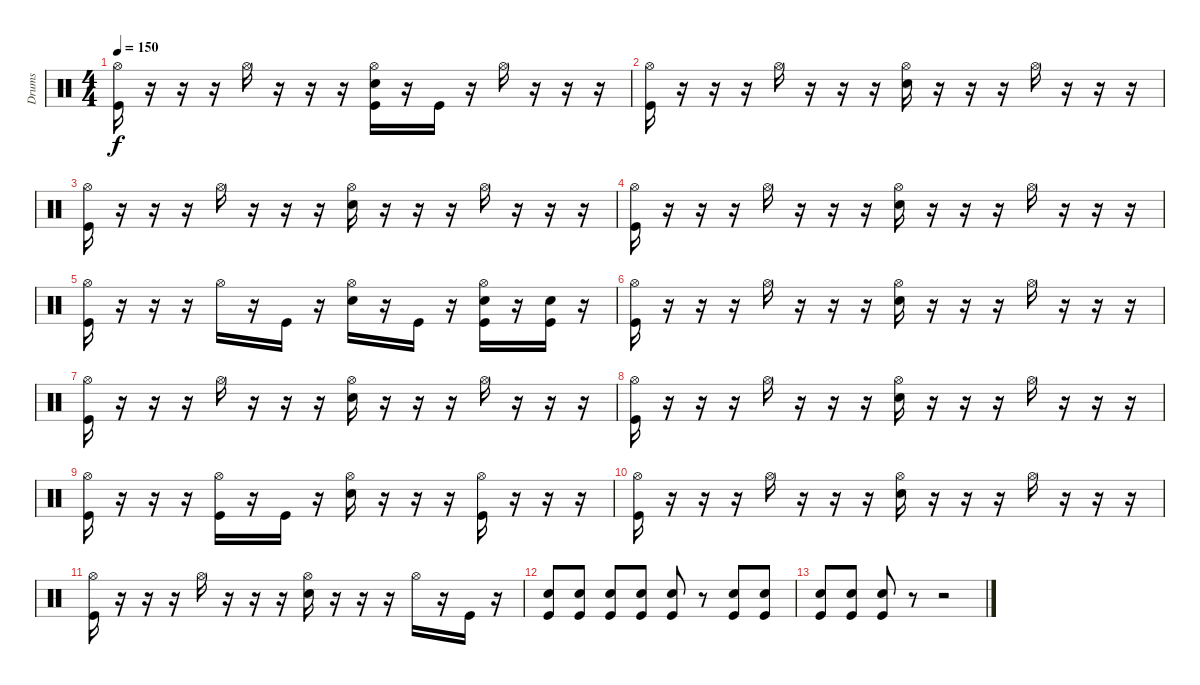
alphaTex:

\track ("Drums" "Drums") {instrument percussion}
\staff {score}
\articulation defaults
\ts (4 4)
\tempo 150
\clef neutral
\ks c
("Hi-Hat (open)" "Kick (hit)").16{dy f} r.16 r.16 r.16 "Hi-Hat (open)".16 r.16 r.16 r.16 ("Hi-Hat (open)" "Snare (hit) 2" "Kick (hit)").16 r.16 "Kick (hit)".16 r.16 "Hi-Hat (open)".16 r.16 r.16 r.16 |
("Hi-Hat (open)" "Kick (hit)").16 r.16 r.16 r.16 "Hi-Hat (open)".16 r.16 r.16 r.16 ("Hi-Hat (open)" "Snare (hit) 2").16 r.16 r.16 r.16 "Hi-Hat (open)".16 r.16 r.16 r.16 |
("Hi-Hat (open)" "Kick (hit)").16 r.16 r.16 r.16 "Hi-Hat (open)".16 r.16 r.16 r.16 ("Hi-Hat (open)" "Snare (hit) 2").16 r.16 r.16 r.16 "Hi-Hat (open)".16 r.16 r.16 r.16 |
("Hi-Hat (open)" "Kick (hit)").16 r.16 r.16 r.16 "Hi-Hat (open)".16 r.16 r.16 r.16 ("Hi-Hat (open)" "Snare (hit) 2").16 r.16 r.16 r.16 "Hi-Hat (open)".16 r.16 r.16 r.16 |
("Hi-Hat (open)" "Kick (hit)").16 r.16 r.16 r.16 "Hi-Hat (open)".16 r.16 "Kick (hit)".16 r.16 ("Hi-Hat (open)" "Snare (hit) 2").16 r.16 "Kick (hit)".16 r.16 ("Hi-Hat (open)" "Snare (hit) 2" "Kick (hit)").16 r.16 ("Snare (hit) 2" "Kick (hit)").16 r.16 |
("Hi-Hat (open)" "Kick (hit)").16 r.16 r.16 r.16 "Hi-Hat (open)".16 r.16 r.16 r.16 ("Hi-Hat (open)" "Snare (hit) 2").16 r.16 r.16 r.16 "Hi-Hat (open)".16 r.16 r.16 r.16 |
("Hi-Hat (open)" "Kick (hit)").16 r.16 r.16 r.16 "Hi-Hat (open)".16 r.16 r.16 r.16 ("Hi-Hat (open)" "Snare (hit) 2").16 r.16 r.16 r.16 "Hi-Hat (open)".16 r.16 r.16 r.16 |
("Hi-Hat (open)" "Kick (hit)").16 r.16 r.16 r.16 "Hi-Hat (open)".16 r.16 r.16 r.16 ("Hi-Hat (open)" "Snare (hit) 2").16 r.16 r.16 r.16 "Hi-Hat (open)".16 r.16 r.16 r.16 |
("Hi-Hat (open)" "Kick (hit)").16 r.16 r.16 r.16 ("Hi-Hat (open)" "Kick (hit)").16 r.16 "Kick (hit)".16 r.16 ("Hi-Hat (open)" "Snare (hit) 2").16 r.16 r.16 r.16 ("Hi-Hat (open)" "Kick (hit)").16 r.16 r.16 r.16 |
("Hi-Hat (open)" "Kick (hit)").16 r.16 r.16 r.16 "Hi-Hat (open)".16 r.16 r.16 r.16 ("Hi-Hat (open)" "Snare (hit) 2").16 r.16 r.16 r.16 "Hi-Hat (open)".16 r.16 r.16 r.16 |
("Hi-Hat (open)" "Kick (hit)").16 r.16 r.16 r.16 "Hi-Hat (open)".16 r.16 r.16 r.16 ("Hi-Hat (open)" "Snare (hit) 2").16 r.16 r.16 r.16 "Hi-Hat (open)".16 r.16 "Kick (hit)".16 r.16 |
("Snare (hit) 2" "Kick (hit)").8 ("Snare (hit) 2" "Kick (hit)").8 ("Snare (hit) 2" "Kick (hit)").8 ("Snare (hit) 2" "Kick (hit)").8 ("Snare (hit) 2" "Kick (hit)").8 r.8 ("Snare (hit) 2" "Kick (hit)").8 ("Snare (hit) 2" "Kick (hit)").8 |
("Snare (hit) 2" "Kick (hit)").8 ("Snare (hit) 2" "Kick (hit)").8 ("Snare (hit) 2" "Kick (hit)").8 r.8 r.2
